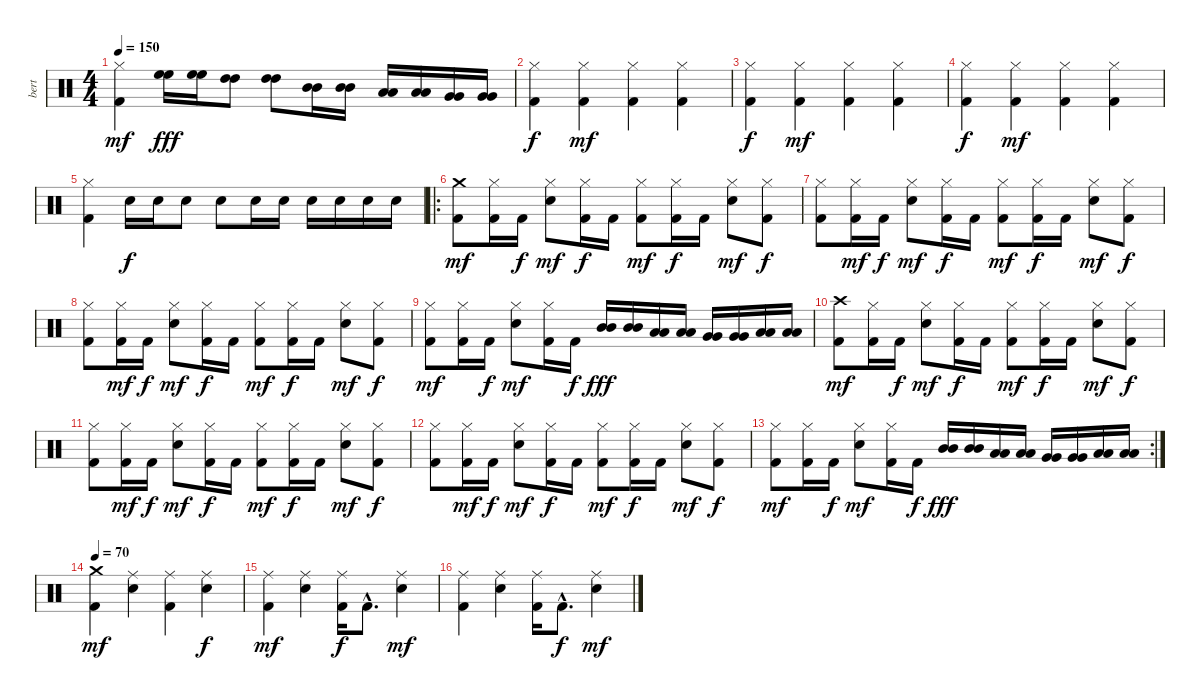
\track ("bert" "bert") {instrument percussion}
\staff {score}
\articulation defaults
\ts (4 4)
\tempo 150
\clef neutral
\ks c
("Hi-Hat (closed)" "Kick (hit) 2").4{dy mf} ("High Floor Tom (hit)" "High Floor Tom (hit)").16{dy fff} ("High Floor Tom (hit)" "High Floor Tom (hit)").16 ("High Tom (hit)" "High Tom (hit)").8 ("High Tom (hit)" "High Tom (hit)").8 ("Mid Tom (hit)" "Mid Tom (hit)").16 ("Mid Tom (hit)" "Mid Tom (hit)").16 ("Low Tom (hit)" "Low Tom (hit)").16 ("Low Tom (hit)" "Low Tom (hit)").16 ("Very Low Tom (hit)" "Very Low Tom (hit)").16 ("Very Low Tom (hit)" "Very Low Tom (hit)").16 |
("Hi-Hat (closed)" "Kick (hit) 2").4{dy f} ("Hi-Hat (closed)" "Kick (hit) 2").4{dy mf} ("Hi-Hat (closed)" "Kick (hit) 2").4 ("Hi-Hat (closed)" "Kick (hit) 2").4 |
("Hi-Hat (closed)" "Kick (hit) 2").4{dy f} ("Hi-Hat (closed)" "Kick (hit) 2").4{dy mf} ("Hi-Hat (closed)" "Kick (hit) 2").4 ("Hi-Hat (closed)" "Kick (hit) 2").4 |
("Hi-Hat (closed)" "Kick (hit) 2").4{dy f} ("Hi-Hat (closed)" "Kick (hit) 2").4{dy mf} ("Hi-Hat (closed)" "Kick (hit) 2").4 ("Hi-Hat (closed)" "Kick (hit) 2").4 |
("Hi-Hat (closed)" "Kick (hit) 2").4 "Snare (hit) 2".16{dy f} "Snare (hit) 2".16 "Snare (hit) 2".8 "Snare (hit) 2".8 "Snare (hit) 2".16 "Snare (hit) 2".16 "Snare (hit) 2".16 "Snare (hit) 2".16 "Snare (hit) 2".16 "Snare (hit) 2".16 |
\ro
("Crash medium (hit)" "Kick (hit) 2").8{dy mf} ("Hi-Hat (closed)" "Kick (hit) 2").16 "Kick (hit) 2".16{dy f} ("Hi-Hat (closed)" "Snare (hit) 2").8{dy mf} ("Hi-Hat (closed)" "Kick (hit) 2").16{dy f} "Kick (hit) 2".16 ("Hi-Hat (closed)" "Kick (hit) 2").8{dy mf} ("Hi-Hat (closed)" "Kick (hit) 2").16{dy f} "Kick (hit) 2".16 ("Hi-Hat (closed)" "Snare (hit) 2").8{dy mf} ("Hi-Hat (closed)" "Kick (hit) 2").8{dy f} |
("Hi-Hat (closed)" "Kick (hit) 2").8 ("Hi-Hat (closed)" "Kick (hit) 2").16{dy mf} "Kick (hit) 2".16{dy f} ("Hi-Hat (closed)" "Snare (hit) 2").8{dy mf} ("Hi-Hat (closed)" "Kick (hit) 2").16{dy f} "Kick (hit) 2".16 ("Hi-Hat (closed)" "Kick (hit) 2").8{dy mf} ("Hi-Hat (closed)" "Kick (hit) 2").16{dy f} "Kick (hit) 2".16 ("Hi-Hat (closed)" "Snare (hit) 2").8{dy mf} ("Hi-Hat (closed)" "Kick (hit) 2").8{dy f} |
("Hi-Hat (closed)" "Kick (hit) 2").8 ("Hi-Hat (closed)" "Kick (hit) 2").16{dy mf} "Kick (hit) 2".16{dy f} ("Hi-Hat (closed)" "Snare (hit) 2").8{dy mf} ("Hi-Hat (closed)" "Kick (hit) 2").16{dy f} "Kick (hit) 2".16 ("Hi-Hat (closed)" "Kick (hit) 2").8{dy mf} ("Hi-Hat (closed)" "Kick (hit) 2").16{dy f} "Kick (hit) 2".16 ("Hi-Hat (closed)" "Snare (hit) 2").8{dy mf} ("Hi-Hat (closed)" "Kick (hit) 2").8{dy f} |
("Hi-Hat (closed)" "Kick (hit) 2").8{dy mf} ("Hi-Hat (closed)" "Kick (hit) 2").16 "Kick (hit) 2".16{dy f} ("Hi-Hat (closed)" "Snare (hit) 2").8{dy mf} ("Hi-Hat (closed)" "Kick (hit) 2").16 "Kick (hit) 2".16{dy f} ("Mid Tom (hit)" "Mid Tom (hit)").16{dy fff} ("Mid Tom (hit)" "Mid Tom (hit)").16 ("Low Tom (hit)" "Low Tom (hit)").16 ("Low Tom (hit)" "Low Tom (hit)").16 ("Very Low Tom (hit)" "Very Low Tom (hit)").16 ("Very Low Tom (hit)" "Very Low Tom (hit)").16 ("Low Floor Tom (hit)" "Low Floor Tom (hit)").16 ("Low Floor Tom (hit)" "Low Floor Tom (hit)").16 |
("Crash high (hit)" "Kick (hit) 2").8{dy mf} ("Hi-Hat (closed)" "Kick (hit) 2").16 "Kick (hit) 2".16{dy f} ("Hi-Hat (closed)" "Snare (hit) 2").8{dy mf} ("Hi-Hat (closed)" "Kick (hit) 2").16{dy f} "Kick (hit) 2".16 ("Hi-Hat (closed)" "Kick (hit) 2").8{dy mf} ("Hi-Hat (closed)" "Kick (hit) 2").16{dy f} "Kick (hit) 2".16 ("Hi-Hat (closed)" "Snare (hit) 2").8{dy mf} ("Hi-Hat (closed)" "Kick (hit) 2").8{dy f} |
("Hi-Hat (closed)" "Kick (hit) 2").8 ("Hi-Hat (closed)" "Kick (hit) 2").16{dy mf} "Kick (hit) 2".16{dy f} ("Hi-Hat (closed)" "Snare (hit) 2").8{dy mf} ("Hi-Hat (closed)" "Kick (hit) 2").16{dy f} "Kick (hit) 2".16 ("Hi-Hat (closed)" "Kick (hit) 2").8{dy mf} ("Hi-Hat (closed)" "Kick (hit) 2").16{dy f} "Kick (hit) 2".16 ("Hi-Hat (closed)" "Snare (hit) 2").8{dy mf} ("Hi-Hat (closed)" "Kick (hit) 2").8{dy f} |
("Hi-Hat (closed)" "Kick (hit) 2").8 ("Hi-Hat (closed)" "Kick (hit) 2").16{dy mf} "Kick (hit) 2".16{dy f} ("Hi-Hat (closed)" "Snare (hit) 2").8{dy mf} ("Hi-Hat (closed)" "Kick (hit) 2").16{dy f} "Kick (hit) 2".16 ("Hi-Hat (closed)" "Kick (hit) 2").8{dy mf} ("Hi-Hat (closed)" "Kick (hit) 2").16{dy f} "Kick (hit) 2".16 ("Hi-Hat (closed)" "Snare (hit) 2").8{dy mf} ("Hi-Hat (closed)" "Kick (hit) 2").8{dy f} |
\rc 2
("Hi-Hat (closed)" "Kick (hit) 2").8{dy mf} ("Hi-Hat (closed)" "Kick (hit) 2").16 "Kick (hit) 2".16{dy f} ("Hi-Hat (closed)" "Snare (hit) 2").8{dy mf} ("Hi-Hat (closed)" "Kick (hit) 2").16 "Kick (hit) 2".16{dy f} ("Mid Tom (hit)" "Mid Tom (hit)").16{dy fff} ("Mid Tom (hit)" "Mid Tom (hit)").16 ("Low Tom (hit)" "Low Tom (hit)").16 ("Low Tom (hit)" "Low Tom (hit)").16 ("Very Low Tom (hit)" "Very Low Tom (hit)").16 ("Very Low Tom (hit)" "Very Low Tom (hit)").16 ("Low Floor Tom (hit)" "Low Floor Tom (hit)").16 ("Low Floor Tom (hit)" "Low Floor Tom (hit)").16 |
\tempo 70
("Crash medium (hit)" "Kick (hit) 2").4{dy mf} ("Ride (middle)" "Snare (hit) 2").4 ("Ride (middle)" "Kick (hit) 2").4 ("Ride (middle)" "Snare (hit) 2").4{dy f} |
("Ride (middle)" "Kick (hit) 2").4{dy mf} ("Ride (middle)" "Snare (hit) 2").4 ("Ride (middle)" "Kick (hit) 2").16{dy f} "Kick (hit) 2"{hac}.8{d} ("Ride (middle)" "Snare (hit) 2").4{dy mf} |
("Ride (middle)" "Kick (hit) 2").4 ("Ride (middle)" "Snare (hit) 2").4 ("Ride (middle)" "Kick (hit) 2").16 "Kick (hit) 2"{hac}.8{d dy f} ("Ride (middle)" "Snare (hit) 2").4{dy mf}
